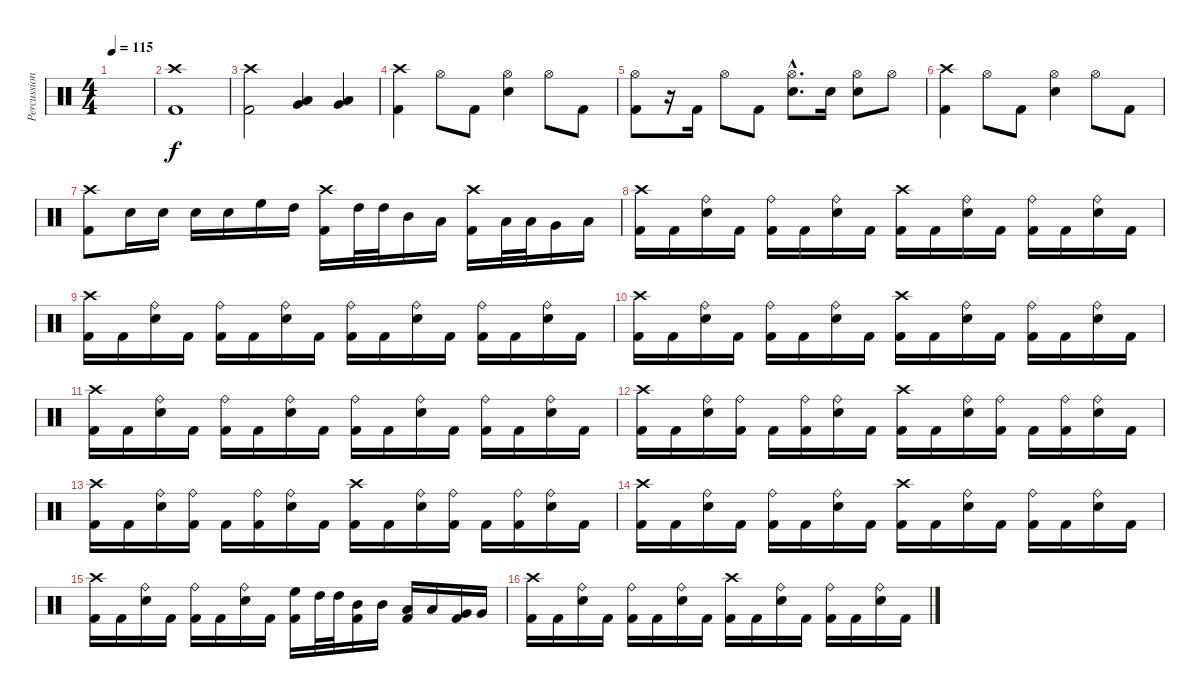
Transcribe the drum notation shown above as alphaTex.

\track ("Percussion" "Percussion") {instrument percussion}
\staff {score}
\articulation defaults
\ts (4 4)
\tempo 115
\clef neutral
\ks c
|
("Kick (hit) 2" "Crash high (hit)").1 |
("Kick (hit) 2" "Crash high (hit)").2 ("Very Low Tom (hit)" "Low Tom (hit)").4 ("Very Low Tom (hit)" "Low Tom (hit)").4 |
("Kick (hit) 2" "Crash high (hit)").4 "Hi-Hat (open)".8 "Kick (hit) 2".8 ("Electric Snare (hit)" "Hi-Hat (open)").4 "Hi-Hat (open)".8 "Kick (hit) 2".8 |
("Kick (hit) 2" "Hi-Hat (open)").8 r.16 "Kick (hit) 2".16 "Hi-Hat (open)".8 "Kick (hit) 2".8 ("Electric Snare (hit)"{hac} "Hi-Hat (open)"{hac}).8{d} "Electric Snare (hit)".16 ("Electric Snare (hit)" "Hi-Hat (open)").8 "Hi-Hat (open)".8 |
("Kick (hit) 2" "Crash high (hit)").4 "Hi-Hat (open)".8 "Kick (hit) 2".8 ("Electric Snare (hit)" "Hi-Hat (open)").4 "Hi-Hat (open)".8 "Kick (hit) 2".8 |
("Kick (hit) 2" "Crash high (hit)").8 "Electric Snare (hit)".16 "Electric Snare (hit)".16 "Electric Snare (hit)".16 "Electric Snare (hit)".16 "High Floor Tom (hit)".16 "High Tom (hit)".16 ("Kick (hit) 2" "Crash high (hit)").16 "High Tom (hit)".32 "High Tom (hit)".32 "Mid Tom (hit)".16 "Low Tom (hit)".16 ("Kick (hit) 2" "Crash high (hit)").16 "Low Tom (hit)".32 "Low Tom (hit)".32 "Very Low Tom (hit)".16 "Low Floor Tom (hit)".16 |
("Kick (hit) 2" "Crash high (hit)").16 "Kick (hit) 2".16 ("Electric Snare (hit)" "Ride (bell)").16 "Kick (hit) 2".16 ("Kick (hit) 2" "Ride (bell)").16 "Kick (hit) 2".16 ("Electric Snare (hit)" "Ride (bell)").16 "Kick (hit) 2".16 ("Kick (hit) 2" "Crash high (hit)").16 "Kick (hit) 2".16 ("Electric Snare (hit)" "Ride (bell)").16 "Kick (hit) 2".16 ("Kick (hit) 2" "Ride (bell)").16 "Kick (hit) 2".16 ("Electric Snare (hit)" "Ride (bell)").16 "Kick (hit) 2".16 |
("Kick (hit) 2" "Crash high (hit)").16 "Kick (hit) 2".16 ("Electric Snare (hit)" "Ride (bell)").16 "Kick (hit) 2".16 ("Kick (hit) 2" "Ride (bell)").16 "Kick (hit) 2".16 ("Electric Snare (hit)" "Ride (bell)").16 "Kick (hit) 2".16 ("Kick (hit) 2" "Ride (bell)").16 "Kick (hit) 2".16 ("Electric Snare (hit)" "Ride (bell)").16 "Kick (hit) 2".16 ("Kick (hit) 2" "Ride (bell)").16 "Kick (hit) 2".16 ("Electric Snare (hit)" "Ride (bell)").16 "Kick (hit) 2".16 |
("Kick (hit) 2" "Crash high (hit)").16 "Kick (hit) 2".16 ("Electric Snare (hit)" "Ride (bell)").16 "Kick (hit) 2".16 ("Kick (hit) 2" "Ride (bell)").16 "Kick (hit) 2".16 ("Electric Snare (hit)" "Ride (bell)").16 "Kick (hit) 2".16 ("Kick (hit) 2" "Crash high (hit)").16 "Kick (hit) 2".16 ("Electric Snare (hit)" "Ride (bell)").16 "Kick (hit) 2".16 ("Kick (hit) 2" "Ride (bell)").16 "Kick (hit) 2".16 ("Electric Snare (hit)" "Ride (bell)").16 "Kick (hit) 2".16 |
("Kick (hit) 2" "Crash high (hit)").16 "Kick (hit) 2".16 ("Electric Snare (hit)" "Ride (bell)").16 "Kick (hit) 2".16 ("Kick (hit) 2" "Ride (bell)").16 "Kick (hit) 2".16 ("Electric Snare (hit)" "Ride (bell)").16 "Kick (hit) 2".16 ("Kick (hit) 2" "Ride (bell)").16 "Kick (hit) 2".16 ("Electric Snare (hit)" "Ride (bell)").16 "Kick (hit) 2".16 ("Kick (hit) 2" "Ride (bell)").16 "Kick (hit) 2".16 ("Electric Snare (hit)" "Ride (bell)").16 "Kick (hit) 2".16 |
("Kick (hit) 2" "Crash high (hit)").16 "Kick (hit) 2".16 ("Electric Snare (hit)" "Ride (bell)").16 ("Kick (hit) 2" "Ride (bell)").16 "Kick (hit) 2".16 ("Kick (hit) 2" "Ride (bell)").16 ("Electric Snare (hit)" "Ride (bell)").16 "Kick (hit) 2".16 ("Kick (hit) 2" "Crash high (hit)").16 "Kick (hit) 2".16 ("Electric Snare (hit)" "Ride (bell)").16 ("Kick (hit) 2" "Ride (bell)").16 "Kick (hit) 2".16 ("Kick (hit) 2" "Ride (bell)").16 ("Electric Snare (hit)" "Ride (bell)").16 "Kick (hit) 2".16 |
("Kick (hit) 2" "Crash high (hit)").16 "Kick (hit) 2".16 ("Electric Snare (hit)" "Ride (bell)").16 ("Kick (hit) 2" "Ride (bell)").16 "Kick (hit) 2".16 ("Kick (hit) 2" "Ride (bell)").16 ("Electric Snare (hit)" "Ride (bell)").16 "Kick (hit) 2".16 ("Kick (hit) 2" "Crash high (hit)").16 "Kick (hit) 2".16 ("Electric Snare (hit)" "Ride (bell)").16 ("Kick (hit) 2" "Ride (bell)").16 "Kick (hit) 2".16 ("Kick (hit) 2" "Ride (bell)").16 ("Electric Snare (hit)" "Ride (bell)").16 "Kick (hit) 2".16 |
("Kick (hit) 2" "Crash high (hit)").16 "Kick (hit) 2".16 ("Electric Snare (hit)" "Ride (bell)").16 "Kick (hit) 2".16 ("Kick (hit) 2" "Ride (bell)").16 "Kick (hit) 2".16 ("Electric Snare (hit)" "Ride (bell)").16 "Kick (hit) 2".16 ("Kick (hit) 2" "Crash high (hit)").16 "Kick (hit) 2".16 ("Electric Snare (hit)" "Ride (bell)").16 "Kick (hit) 2".16 ("Kick (hit) 2" "Ride (bell)").16 "Kick (hit) 2".16 ("Electric Snare (hit)" "Ride (bell)").16 "Kick (hit) 2".16 |
("Kick (hit) 2" "Crash high (hit)").16 "Kick (hit) 2".16 ("Electric Snare (hit)" "Ride (bell)").16 "Kick (hit) 2".16 ("Kick (hit) 2" "Ride (bell)").16 "Kick (hit) 2".16 ("Electric Snare (hit)" "Ride (bell)").16 "Kick (hit) 2".16 ("High Floor Tom (hit)" "Kick (hit) 2").16 "High Tom (hit)".32 "High Tom (hit)".32 ("Mid Tom (hit)" "Kick (hit) 2").16 "Mid Tom (hit)".16 ("Low Tom (hit)" "Kick (hit) 2").16 "Low Tom (hit)".16 ("Very Low Tom (hit)" "Kick (hit) 2").16 "Very Low Tom (hit)".16 |
("Kick (hit) 2" "Crash high (hit)").16 "Kick (hit) 2".16 ("Electric Snare (hit)" "Ride (bell)").16 "Kick (hit) 2".16 ("Kick (hit) 2" "Ride (bell)").16 "Kick (hit) 2".16 ("Electric Snare (hit)" "Ride (bell)").16 "Kick (hit) 2".16 ("Kick (hit) 2" "Crash high (hit)").16 "Kick (hit) 2".16 ("Electric Snare (hit)" "Ride (bell)").16 "Kick (hit) 2".16 ("Kick (hit) 2" "Ride (bell)").16 "Kick (hit) 2".16 ("Electric Snare (hit)" "Ride (bell)").16 "Kick (hit) 2".16
